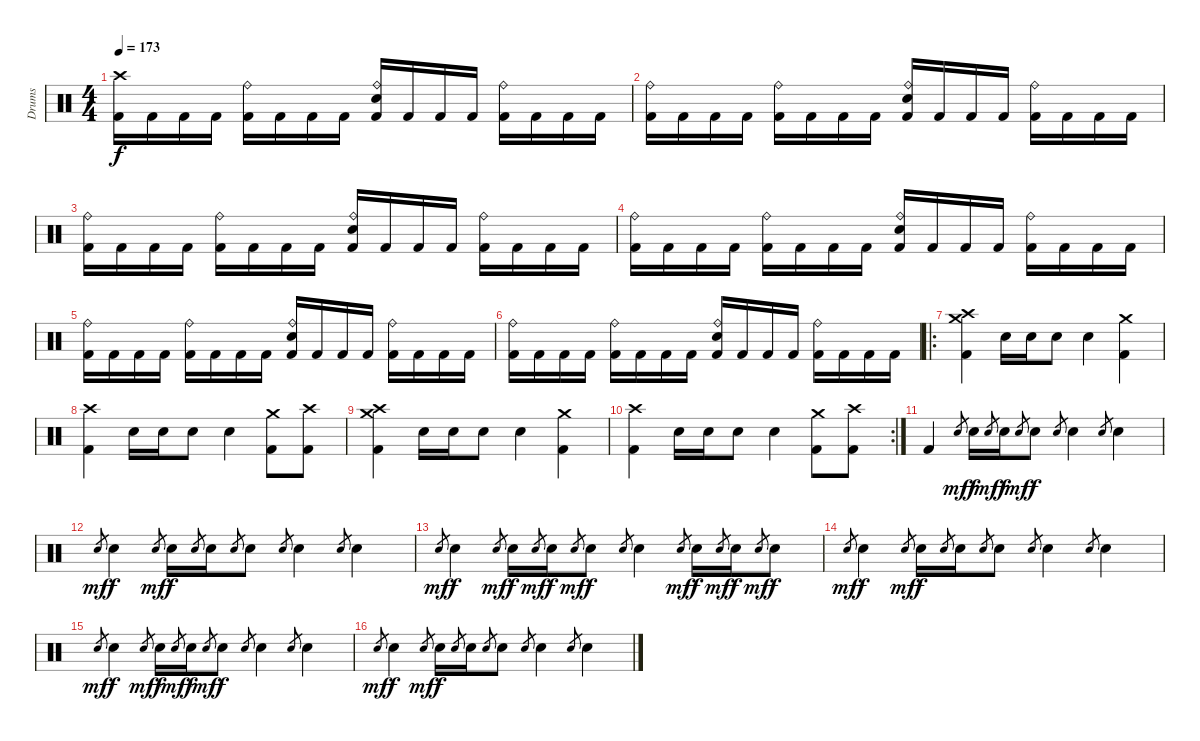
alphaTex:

\track ("Drums" "Drums") {instrument percussion}
\staff {score}
\articulation defaults
\ts (4 4)
\tempo 173
\clef neutral
\ks c
("Crash high (hit)" "Kick (hit) 2").16{dy f} "Kick (hit) 2".16 "Kick (hit) 2".16 "Kick (hit) 2".16 ("Ride (bell)" "Kick (hit) 2").16 "Kick (hit) 2".16 "Kick (hit) 2".16 "Kick (hit) 2".16 ("Ride (bell)" "Snare (hit) 2" "Kick (hit) 2").16 "Kick (hit) 2".16 "Kick (hit) 2".16 "Kick (hit) 2".16 ("Ride (bell)" "Kick (hit) 2").16 "Kick (hit) 2".16 "Kick (hit) 2".16 "Kick (hit) 2".16 |
("Ride (bell)" "Kick (hit) 2").16 "Kick (hit) 2".16 "Kick (hit) 2".16 "Kick (hit) 2".16 ("Ride (bell)" "Kick (hit) 2").16 "Kick (hit) 2".16 "Kick (hit) 2".16 "Kick (hit) 2".16 ("Ride (bell)" "Snare (hit) 2" "Kick (hit) 2").16 "Kick (hit) 2".16 "Kick (hit) 2".16 "Kick (hit) 2".16 ("Ride (bell)" "Kick (hit) 2").16 "Kick (hit) 2".16 "Kick (hit) 2".16 "Kick (hit) 2".16 |
("Ride (bell)" "Kick (hit) 2").16 "Kick (hit) 2".16 "Kick (hit) 2".16 "Kick (hit) 2".16 ("Ride (bell)" "Kick (hit) 2").16 "Kick (hit) 2".16 "Kick (hit) 2".16 "Kick (hit) 2".16 ("Ride (bell)" "Snare (hit) 2" "Kick (hit) 2").16 "Kick (hit) 2".16 "Kick (hit) 2".16 "Kick (hit) 2".16 ("Ride (bell)" "Kick (hit) 2").16 "Kick (hit) 2".16 "Kick (hit) 2".16 "Kick (hit) 2".16 |
("Ride (bell)" "Kick (hit) 2").16 "Kick (hit) 2".16 "Kick (hit) 2".16 "Kick (hit) 2".16 ("Ride (bell)" "Kick (hit) 2").16 "Kick (hit) 2".16 "Kick (hit) 2".16 "Kick (hit) 2".16 ("Ride (bell)" "Snare (hit) 2" "Kick (hit) 2").16 "Kick (hit) 2".16 "Kick (hit) 2".16 "Kick (hit) 2".16 ("Ride (bell)" "Kick (hit) 2").16 "Kick (hit) 2".16 "Kick (hit) 2".16 "Kick (hit) 2".16 |
("Ride (bell)" "Kick (hit) 2").16 "Kick (hit) 2".16 "Kick (hit) 2".16 "Kick (hit) 2".16 ("Ride (bell)" "Kick (hit) 2").16 "Kick (hit) 2".16 "Kick (hit) 2".16 "Kick (hit) 2".16 ("Ride (bell)" "Snare (hit) 2" "Kick (hit) 2").16 "Kick (hit) 2".16 "Kick (hit) 2".16 "Kick (hit) 2".16 ("Ride (bell)" "Kick (hit) 2").16 "Kick (hit) 2".16 "Kick (hit) 2".16 "Kick (hit) 2".16 |
("Ride (bell)" "Kick (hit) 2").16 "Kick (hit) 2".16 "Kick (hit) 2".16 "Kick (hit) 2".16 ("Ride (bell)" "Kick (hit) 2").16 "Kick (hit) 2".16 "Kick (hit) 2".16 "Kick (hit) 2".16 ("Ride (bell)" "Snare (hit) 2" "Kick (hit) 2").16 "Kick (hit) 2".16 "Kick (hit) 2".16 "Kick (hit) 2".16 ("Ride (bell)" "Kick (hit) 2").16 "Kick (hit) 2".16 "Kick (hit) 2".16 "Kick (hit) 2".16 |
\ro
("Crash high (hit)" "Crash medium (hit)" "Kick (hit) 2").4 "Snare (hit) 2".16 "Snare (hit) 2".16 "Snare (hit) 2".8 "Snare (hit) 2".4 ("Crash medium (hit)" "Kick (hit) 2").4 |
("Crash high (hit)" "Kick (hit) 2").4 "Snare (hit) 2".16 "Snare (hit) 2".16 "Snare (hit) 2".8 "Snare (hit) 2".4 ("Crash medium (hit)" "Kick (hit) 2").8 ("Crash high (hit)" "Kick (hit) 2").8 |
("Crash high (hit)" "Crash medium (hit)" "Kick (hit) 2").4 "Snare (hit) 2".16 "Snare (hit) 2".16 "Snare (hit) 2".8 "Snare (hit) 2".4 ("Crash medium (hit)" "Kick (hit) 2").4 |
\rc 2
("Crash high (hit)" "Kick (hit) 2").4 "Snare (hit) 2".16 "Snare (hit) 2".16 "Snare (hit) 2".8 "Snare (hit) 2".4 ("Crash medium (hit)" "Kick (hit) 2").8 ("Crash high (hit)" "Kick (hit) 2").8 |
"Kick (hit) 2".4 "Electric Snare (hit)".8{gr dy mf} "Electric Snare (hit)".16{dy f} "Electric Snare (hit)".8{gr dy mf} "Electric Snare (hit)".16{dy f} "Electric Snare (hit)".8{gr dy mf} "Electric Snare (hit)".8{dy f} "Electric Snare (hit)".8{gr} "Electric Snare (hit)".4 "Electric Snare (hit)".8{gr} "Electric Snare (hit)".4 |
"Electric Snare (hit)".8{gr dy mf} "Electric Snare (hit)".4{dy f} "Electric Snare (hit)".8{gr dy mf} "Electric Snare (hit)".16{dy f} "Electric Snare (hit)".8{gr} "Electric Snare (hit)".16 "Electric Snare (hit)".8{gr} "Electric Snare (hit)".8 "Electric Snare (hit)".8{gr} "Electric Snare (hit)".4 "Electric Snare (hit)".8{gr} "Electric Snare (hit)".4 |
"Electric Snare (hit)".8{gr dy mf} "Electric Snare (hit)".4{dy f} "Electric Snare (hit)".8{gr dy mf} "Electric Snare (hit)".16{dy f} "Electric Snare (hit)".8{gr dy mf} "Electric Snare (hit)".16{dy f} "Electric Snare (hit)".8{gr dy mf} "Electric Snare (hit)".8{dy f} "Electric Snare (hit)".8{gr} "Electric Snare (hit)".4 "Electric Snare (hit)".8{gr dy mf} "Electric Snare (hit)".16{dy f} "Electric Snare (hit)".8{gr dy mf} "Electric Snare (hit)".16{dy f} "Electric Snare (hit)".8{gr dy mf} "Electric Snare (hit)".8{dy f} |
"Electric Snare (hit)".8{gr dy mf} "Electric Snare (hit)".4{dy f} "Electric Snare (hit)".8{gr dy mf} "Electric Snare (hit)".16{dy f} "Electric Snare (hit)".8{gr} "Electric Snare (hit)".16 "Electric Snare (hit)".8{gr} "Electric Snare (hit)".8 "Electric Snare (hit)".8{gr} "Electric Snare (hit)".4 "Electric Snare (hit)".8{gr} "Electric Snare (hit)".4 |
"Electric Snare (hit)".8{gr dy mf} "Electric Snare (hit)".4{dy f} "Electric Snare (hit)".8{gr dy mf} "Electric Snare (hit)".16{dy f} "Electric Snare (hit)".8{gr dy mf} "Electric Snare (hit)".16{dy f} "Electric Snare (hit)".8{gr dy mf} "Electric Snare (hit)".8{dy f} "Electric Snare (hit)".8{gr} "Electric Snare (hit)".4 "Electric Snare (hit)".8{gr} "Electric Snare (hit)".4 |
"Electric Snare (hit)".8{gr dy mf} "Electric Snare (hit)".4{dy f} "Electric Snare (hit)".8{gr dy mf} "Electric Snare (hit)".16{dy f} "Electric Snare (hit)".8{gr} "Electric Snare (hit)".16 "Electric Snare (hit)".8{gr} "Electric Snare (hit)".8 "Electric Snare (hit)".8{gr} "Electric Snare (hit)".4 "Electric Snare (hit)".8{gr} "Electric Snare (hit)".4
